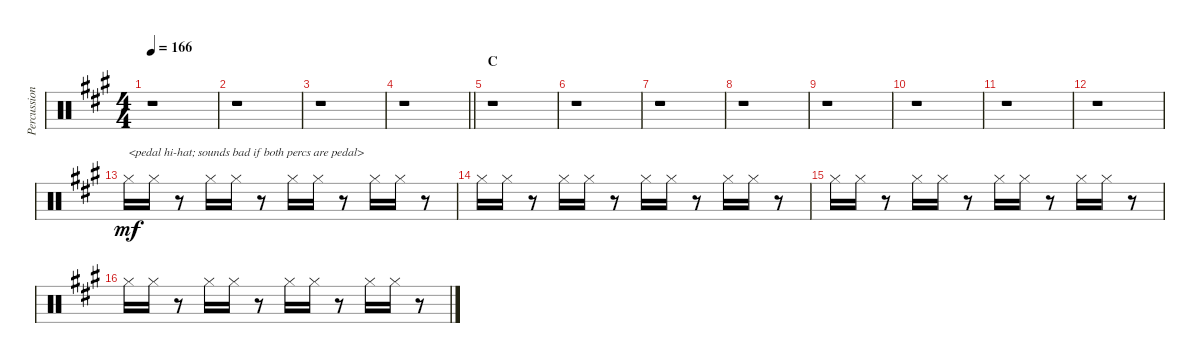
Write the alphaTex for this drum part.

\track ("Percussion II" "Percussion") {instrument percussion}
\staff {score}
\articulation defaults
\ts (4 4)
\tempo 166
\clef neutral
\ks a
r.1{dy f} |
r.1 |
r.1 |
\barLineRight lightlight
r.1 |
\section ("" "C")
r.1 |
r.1 |
r.1 |
r.1 |
r.1 |
r.1 |
r.1 |
r.1 |
"Hi-Hat (closed)".16{txt "<pedal hi-hat; sounds bad if both percs are pedal>" dy mf} "Hi-Hat (closed)".16 r.8 "Hi-Hat (closed)".16 "Hi-Hat (closed)".16 r.8 "Hi-Hat (closed)".16 "Hi-Hat (closed)".16 r.8 "Hi-Hat (closed)".16 "Hi-Hat (closed)".16 r.8 |
"Hi-Hat (closed)".16 "Hi-Hat (closed)".16 r.8 "Hi-Hat (closed)".16 "Hi-Hat (closed)".16 r.8 "Hi-Hat (closed)".16 "Hi-Hat (closed)".16 r.8 "Hi-Hat (closed)".16 "Hi-Hat (closed)".16 r.8 |
"Hi-Hat (closed)".16 "Hi-Hat (closed)".16 r.8 "Hi-Hat (closed)".16 "Hi-Hat (closed)".16 r.8 "Hi-Hat (closed)".16 "Hi-Hat (closed)".16 r.8 "Hi-Hat (closed)".16 "Hi-Hat (closed)".16 r.8 |
"Hi-Hat (closed)".16 "Hi-Hat (closed)".16 r.8 "Hi-Hat (closed)".16 "Hi-Hat (closed)".16 r.8 "Hi-Hat (closed)".16 "Hi-Hat (closed)".16 r.8 "Hi-Hat (closed)".16 "Hi-Hat (closed)".16 r.8
